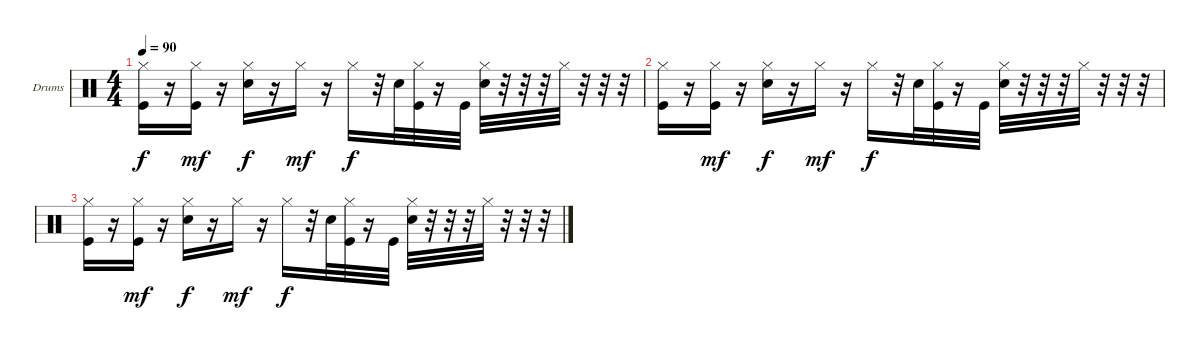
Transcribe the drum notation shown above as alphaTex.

\bracketExtendMode groupsimilarinstruments
\firstSystemTrackNameOrientation horizontal
\otherSystemsTrackNameOrientation horizontal
\track ("Ударная установка" "Drums") {instrument percussion}
\staff {score}
\articulation defaults
\ts (4 4)
\tempo 90
\clef neutral
\ks c
("Kick (hit)" "Hi-Hat (closed)").16{dy f} r.16 ("Kick (hit)" "Hi-Hat (closed)").16{dy mf} r.16 ("Snare (hit) 2" "Hi-Hat (closed)").16{dy f} r.16 "Hi-Hat (closed)".16{dy mf} r.16 "Hi-Hat (closed)".16{dy f} r.32 "Snare (hit) 2".32 ("Kick (hit)" "Hi-Hat (closed)").32 r.16 "Kick (hit)".32 ("Snare (hit) 2" "Hi-Hat (closed)").32 r.32 r.32 r.32 "Hi-Hat (closed)".32 r.32 r.32 r.32 |
("Kick (hit)" "Hi-Hat (closed)").16 r.16 ("Kick (hit)" "Hi-Hat (closed)").16{dy mf} r.16 ("Snare (hit) 2" "Hi-Hat (closed)").16{dy f} r.16 "Hi-Hat (closed)".16{dy mf} r.16 "Hi-Hat (closed)".16{dy f} r.32 "Snare (hit) 2".32 ("Kick (hit)" "Hi-Hat (closed)").32 r.16 "Kick (hit)".32 ("Snare (hit) 2" "Hi-Hat (closed)").32 r.32 r.32 r.32 "Hi-Hat (closed)".32 r.32 r.32 r.32 |
("Kick (hit)" "Hi-Hat (closed)").16 r.16 ("Kick (hit)" "Hi-Hat (closed)").16{dy mf} r.16 ("Snare (hit) 2" "Hi-Hat (closed)").16{dy f} r.16 "Hi-Hat (closed)".16{dy mf} r.16 "Hi-Hat (closed)".16{dy f} r.32 "Snare (hit) 2".32 ("Kick (hit)" "Hi-Hat (closed)").32 r.16 "Kick (hit)".32 ("Snare (hit) 2" "Hi-Hat (closed)").32 r.32 r.32 r.32 "Hi-Hat (closed)".32 r.32 r.32 r.32
